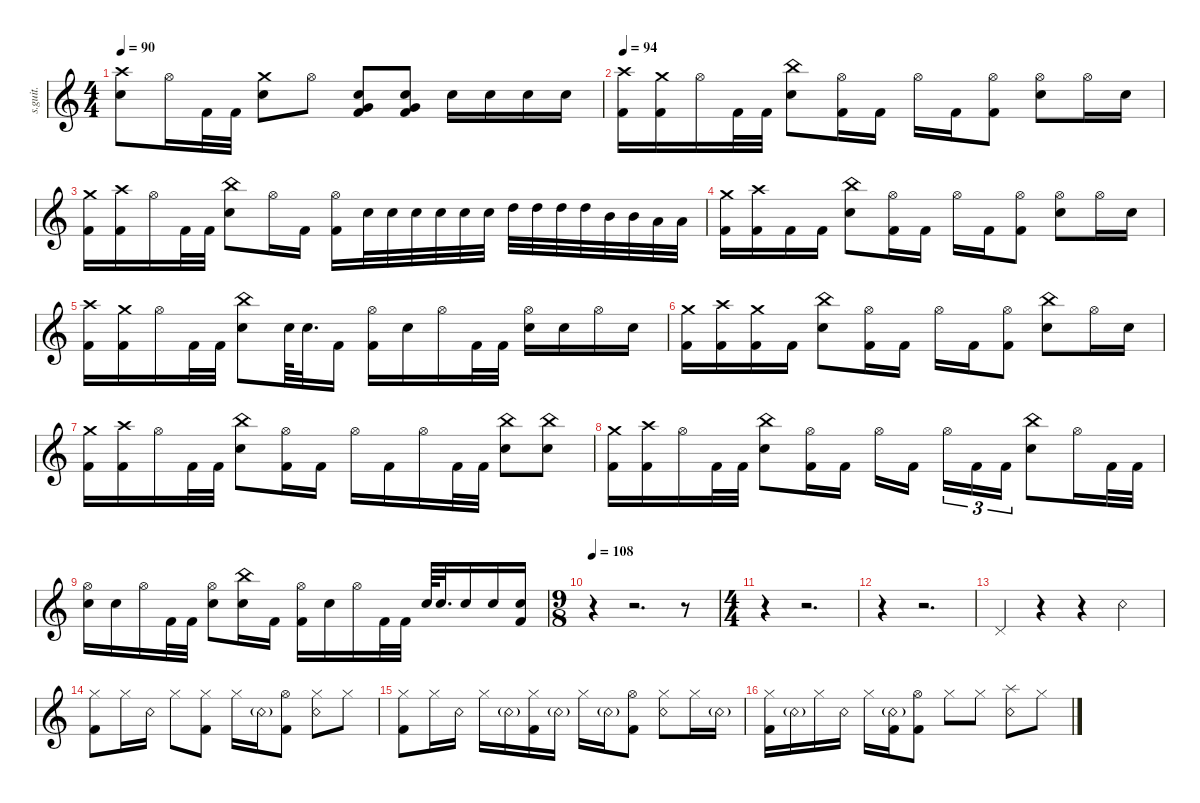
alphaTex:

\defaultSystemsLayout 4
\hideDynamics
\bracketExtendMode nobrackets
\track ("David Silveria" "s.guit.") {instrument percussion}
\staff {score}
\articulation defaults
\ts (4 4)
\tempo 90
\clef g2
\ks c
("Snare (hit) 2" "Crash high (hit)").8{dy f} "Hi-Hat (open)".16 "Kick (hit) 2".32 "Kick (hit) 2".32 ("Snare (hit) 2" "Crash medium (hit)").8 "Hi-Hat (open)".8 ("Kick (hit) 2" "Very Low Tom (hit)" "Snare (hit) 2").8 ("Kick (hit) 2" "Very Low Tom (hit)" "Snare (hit) 2").8 "Snare (hit) 2".16 "Snare (hit) 2".16 "Snare (hit) 2".16 "Snare (hit) 2".16 |
\tempo 94
("Kick (hit) 2" "Crash high (hit)").16{dy fff} ("Crash medium (hit)" "Kick (hit) 2").16{dy ff} "Hi-Hat (open)".16{dy f} "Kick (hit) 2".32 "Kick (hit) 2".32 ("Snare (hit) 2" "China (hit)").8 ("Hi-Hat (open)" "Kick (hit) 2").16 "Kick (hit) 2".16 "Hi-Hat (open)".16 "Kick (hit) 2".16 ("Hi-Hat (open)" "Kick (hit) 2").8 ("Snare (hit) 2" "Hi-Hat (open)").8 "Hi-Hat (open)".16 "Snare (hit) 2".16 |
("Kick (hit) 2" "Crash medium (hit)").16{dy ff} ("Kick (hit) 2" "Crash high (hit)").16{dy f} "Hi-Hat (open)".16 "Kick (hit) 2".32 "Kick (hit) 2".32 ("Snare (hit) 2" "China (hit)").8 "Hi-Hat (open)".16 "Kick (hit) 2".16 ("Hi-Hat (open)" "Kick (hit) 2").16 "Snare (hit) 2".32 "Snare (hit) 2".32 "Snare (hit) 2".32 "Snare (hit) 2".32 "Snare (hit) 2".32 "Snare (hit) 2".32 "High Tom (hit)".32 "High Tom (hit)".32 "High Tom (hit)".32 "High Tom (hit)".32 "Mid Tom (hit)".32 "Mid Tom (hit)".32 "Low Tom (hit)".32 "Low Tom (hit)".32 |
("Kick (hit) 2" "Crash medium (hit)").16{dy fff} ("Kick (hit) 2" "Crash high (hit)").16{dy ff} "Kick (hit) 2".16{dy f} "Kick (hit) 2".16 ("Snare (hit) 2" "China (hit)").8 ("Hi-Hat (open)" "Kick (hit) 2").16 "Kick (hit) 2".16 "Hi-Hat (open)".16 "Kick (hit) 2".16 ("Hi-Hat (open)" "Kick (hit) 2").8 ("Snare (hit) 2" "Hi-Hat (open)").8 "Hi-Hat (open)".16 "Snare (hit) 2".16 |
("Kick (hit) 2" "Crash high (hit)").16{dy ff} ("Crash medium (hit)" "Kick (hit) 2").16{dy f} "Hi-Hat (open)".16 "Kick (hit) 2".32 "Kick (hit) 2".32 ("China (hit)" "Snare (hit) 2").8 "Snare (hit) 2".64 "Snare (hit) 2".32{d} "Kick (hit) 2".16 ("Hi-Hat (open)" "Kick (hit) 2").16 "Snare (hit) 2".16 "Hi-Hat (open)".16 "Kick (hit) 2".32 "Kick (hit) 2".32 ("Hi-Hat (open)" "Snare (hit) 2").16 "Snare (hit) 2".16 "Hi-Hat (open)".16 "Snare (hit) 2".16 |
("Kick (hit) 2" "Crash medium (hit)").16 ("Kick (hit) 2" "Crash high (hit)").16 ("Kick (hit) 2" "Crash medium (hit)").16 "Kick (hit) 2".16 ("Snare (hit) 2" "China (hit)").8 ("Hi-Hat (open)" "Kick (hit) 2").16 "Kick (hit) 2".16 "Hi-Hat (open)".16 "Kick (hit) 2".16 ("Hi-Hat (open)" "Kick (hit) 2").8 ("Snare (hit) 2" "China (hit)").8 "Hi-Hat (open)".16 "Snare (hit) 2".16 |
("Kick (hit) 2" "Crash medium (hit)").16 ("Kick (hit) 2" "Crash high (hit)").16 "Hi-Hat (open)".16 "Kick (hit) 2".32 "Kick (hit) 2".32 ("Snare (hit) 2" "China (hit)").8 ("Hi-Hat (open)" "Kick (hit) 2").16 "Kick (hit) 2".16 "Hi-Hat (open)".16 "Kick (hit) 2".16 "Hi-Hat (open)".16 "Kick (hit) 2".32 "Kick (hit) 2".32 ("Snare (hit) 2" "China (hit)").8 ("Snare (hit) 2" "China (hit)").8 |
("Kick (hit) 2" "Crash medium (hit)").16 ("Kick (hit) 2" "Crash high (hit)").16 "Hi-Hat (open)".16 "Kick (hit) 2".32 "Kick (hit) 2".32 ("Snare (hit) 2" "China (hit)").8 ("Hi-Hat (open)" "Kick (hit) 2").16 "Kick (hit) 2".16 "Hi-Hat (open)".16 "Kick (hit) 2".16 "Hi-Hat (open)".16{tu (3 2)} "Kick (hit) 2".16{tu (3 2)} "Kick (hit) 2".16{tu (3 2)} ("Snare (hit) 2" "China (hit)").8 "Hi-Hat (open)".16 "Kick (hit) 2".32 "Kick (hit) 2".32 |
("Hi-Hat (open)" "Snare (hit) 2").16 "Snare (hit) 2".16 "Hi-Hat (open)".16 "Kick (hit) 2".32 "Kick (hit) 2".32 ("Snare (hit) 2" "Hi-Hat (open)").8 ("Snare (hit) 2" "China (hit)").16 "Kick (hit) 2".16 ("Hi-Hat (open)" "Kick (hit) 2").16 "Snare (hit) 2".16 "Hi-Hat (open)".16 "Kick (hit) 2".32 "Kick (hit) 2".32 "Snare (hit) 2".64 "Snare (hit) 2".32{d} "Snare (hit) 2".16 "Snare (hit) 2".16 ("Snare (hit) 2" "Kick (hit) 2").16 |
\ts (9 8)
\beaming (8 2 2 2 2)
\tempo 108
r.4 r.2{d} r.8 |
\ts (4 4)
\beaming (8 2 2 2 2)
r.4 r.2{d} |
r.4 r.2{d} |
"Pedal Hi-Hat (hit)".4{dy mp} r.4 r.4 "Snare (rim shot)".4{dy ff} |
("Kick (hit) 2" "Hi-Hat (closed)").8{dy f} "Hi-Hat (closed)".16 "Snare (rim shot)".16 "Hi-Hat (closed)".8 ("Hi-Hat (closed)" "Kick (hit) 2").8 "Hi-Hat (closed)".16 "Snare (rim shot)"{g}.16{dy mf} ("Kick (hit) 2" "Hi-Hat (open)").8{dy f} ("Snare (rim shot)" "Hi-Hat (closed)").8 "Hi-Hat (closed)".8 |
("Kick (hit) 2" "Hi-Hat (closed)").8 "Hi-Hat (closed)".16 "Snare (rim shot)".16 "Hi-Hat (closed)".16 "Snare (rim shot)"{g}.16{dy mp} ("Hi-Hat (closed)" "Kick (hit) 2").16{dy f} "Snare (rim shot)"{g}.16{dy mp} "Hi-Hat (closed)".16{dy f} "Snare (rim shot)"{g}.16{dy mp} ("Kick (hit) 2" "Hi-Hat (open)").8{dy f} ("Snare (rim shot)" "Hi-Hat (closed)").8 "Hi-Hat (closed)".16 "Snare (rim shot)"{g}.16{dy mp} |
("Kick (hit) 2" "Hi-Hat (closed)").16{dy mf} "Snare (rim shot)"{g}.16{dy p} "Hi-Hat (closed)".16{dy mf} "Snare (rim shot)".16 "Hi-Hat (closed)".16 ("Snare (rim shot)"{g} "Kick (hit) 2").16 ("Kick (hit) 2" "Hi-Hat (open)").8 "Hi-Hat (closed)".8 "Hi-Hat (closed)".8 ("Splash (hit)" "Snare (rim shot)").8 "Hi-Hat (closed)".8
